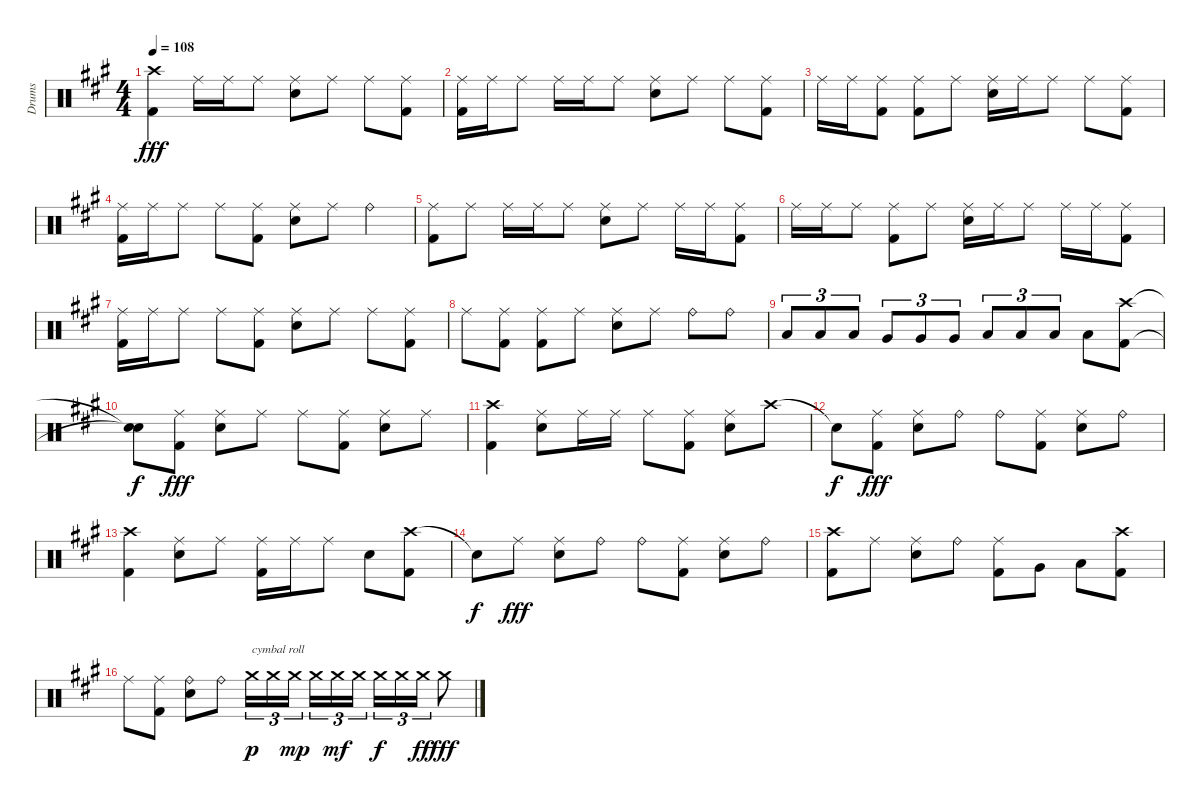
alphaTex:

\track ("Drums" "Drums") {instrument percussion}
\staff {score}
\articulation defaults
\ts (4 4)
\tempo 108
\clef neutral
\ks a
("Crash high (hit)" "Kick (hit) 2").4{dy fff} "Ride (middle)".16 "Ride (middle)".16 "Ride (middle)".8 ("Ride (middle)" "Electric Snare (hit)").8 "Ride (middle)".8 "Ride (middle)".8 ("Ride (middle)" "Kick (hit) 2").8 |
("Ride (middle)" "Kick (hit) 2").16 "Ride (middle)".16 "Ride (middle)".8 "Ride (middle)".16 "Ride (middle)".16 "Ride (middle)".8 ("Ride (middle)" "Electric Snare (hit)").8 "Ride (middle)".8 "Ride (middle)".8 ("Ride (middle)" "Kick (hit) 2").8 |
"Ride (middle)".16 "Ride (middle)".16 ("Ride (middle)" "Kick (hit) 2").8 ("Ride (middle)" "Kick (hit) 2").8 "Ride (middle)".8 ("Ride (middle)" "Electric Snare (hit)").16 "Ride (middle)".16 "Ride (middle)".8 "Ride (middle)".8 ("Ride (middle)" "Kick (hit) 2").8 |
("Ride (middle)" "Kick (hit) 2").16 "Ride (middle)".16 "Ride (middle)".8 "Ride (middle)".8 ("Ride (middle)" "Kick (hit) 2").8 ("Ride (middle)" "Electric Snare (hit)").8 "Ride (middle)".8 "Ride (bell)".4 |
("Ride (middle)" "Kick (hit) 2").8 "Ride (middle)".8 "Ride (middle)".16 "Ride (middle)".16 "Ride (middle)".8 ("Ride (middle)" "Electric Snare (hit)").8 "Ride (middle)".8 "Ride (middle)".16 "Ride (middle)".16 ("Ride (middle)" "Kick (hit) 2").8 |
"Ride (middle)".16 "Ride (middle)".16 "Ride (middle)".8 ("Ride (middle)" "Kick (hit) 2").8 "Ride (middle)".8 ("Ride (middle)" "Electric Snare (hit)").16 "Ride (middle)".16 "Ride (middle)".8 "Ride (middle)".16 "Ride (middle)".16 ("Ride (middle)" "Kick (hit) 2").8 |
("Ride (middle)" "Kick (hit) 2").16 "Ride (middle)".16 "Ride (middle)".8 "Ride (middle)".8 ("Ride (middle)" "Kick (hit) 2").8 ("Ride (middle)" "Electric Snare (hit)").8 "Ride (middle)".8 "Ride (middle)".8 ("Ride (middle)" "Kick (hit) 2").8 |
"Ride (middle)".8 ("Ride (middle)" "Kick (hit) 2").8 ("Ride (middle)" "Kick (hit) 2").8 "Ride (middle)".8 ("Ride (middle)" "Electric Snare (hit)").8 "Ride (middle)".8 "Ride (bell)".8 "Ride (bell)".8 |
"Low Tom (hit)".8{tu (3 2)} "Low Tom (hit)".8{tu (3 2)} "Low Tom (hit)".8{tu (3 2)} "Very Low Tom (hit)".8{tu (3 2)} "Very Low Tom (hit)".8{tu (3 2)} "Very Low Tom (hit)".8{tu (3 2)} "Low Tom (hit)".8{tu (3 2)} "Low Tom (hit)".8{tu (3 2)} "Low Tom (hit)".8{tu (3 2)} "Low Tom (hit)".8 ("Crash high (hit)" "Kick (hit) 2").8 |
("Snare (hit)"{t} "Snare (hit)"{t}).8{dy f} ("Ride (middle)" "Kick (hit) 2").8{dy fff} ("Ride (middle)" "Electric Snare (hit)").8 "Ride (middle)".8 "Ride (middle)".8 ("Ride (middle)" "Kick (hit) 2").8 ("Ride (middle)" "Electric Snare (hit)").8 "Ride (middle)".8 |
("Crash high (hit)" "Kick (hit) 2").4 ("Ride (middle)" "Electric Snare (hit)").8 "Ride (middle)".16 "Ride (middle)".16 "Ride (middle)".8 ("Ride (middle)" "Kick (hit) 2").8 ("Ride (middle)" "Electric Snare (hit)").8 "Crash high (hit)".8 |
"Snare (hit)"{t}.8{dy f} ("Ride (middle)" "Kick (hit) 2").8{dy fff} ("Ride (middle)" "Electric Snare (hit)").8 "Ride (bell)".8 "Ride (bell)".8 ("Ride (middle)" "Kick (hit) 2").8 ("Ride (middle)" "Electric Snare (hit)").8 "Ride (bell)".8 |
("Crash high (hit)" "Kick (hit) 2").4 ("Ride (middle)" "Electric Snare (hit)").8 "Ride (middle)".8 ("Ride (middle)" "Kick (hit) 2").16 "Ride (middle)".16 "Ride (middle)".8 "Electric Snare (hit)".8 ("Crash high (hit)" "Kick (hit) 2").8 |
"Snare (hit)"{t}.8{dy f} "Ride (middle)".8{dy fff} ("Ride (middle)" "Electric Snare (hit)").8 "Ride (bell)".8 "Ride (bell)".8 ("Ride (middle)" "Kick (hit) 2").8 ("Ride (middle)" "Electric Snare (hit)").8 "Ride (bell)".8 |
("Crash high (hit)" "Kick (hit) 2").8 "Ride (middle)".8 ("Ride (middle)" "Electric Snare (hit)").8 "Ride (bell)".8 ("Ride (middle)" "Kick (hit) 2").8 "Very Low Tom (hit)".8 "Low Tom (hit)".8 ("Crash high (hit)" "Kick (hit) 2").8 |
"Ride (middle)".8 ("Ride (middle)" "Kick (hit) 2").8 ("Ride (bell)" "Electric Snare (hit)").8 "Ride (bell)".8 "Crash medium (hit)".16{tu (3 2) txt "cymbal roll" dy p} "Crash medium (hit)".16{tu (3 2)} "Crash medium (hit)".16{tu (3 2) dy mp} "Crash medium (hit)".16{tu (3 2)} "Crash medium (hit)".16{tu (3 2) dy mf} "Crash medium (hit)".16{tu (3 2)} "Crash medium (hit)".16{tu (3 2) dy f} "Crash medium (hit)".16{tu (3 2)} "Crash medium (hit)".16{tu (3 2) dy ff} "Crash medium (hit)".8{dy fff}
